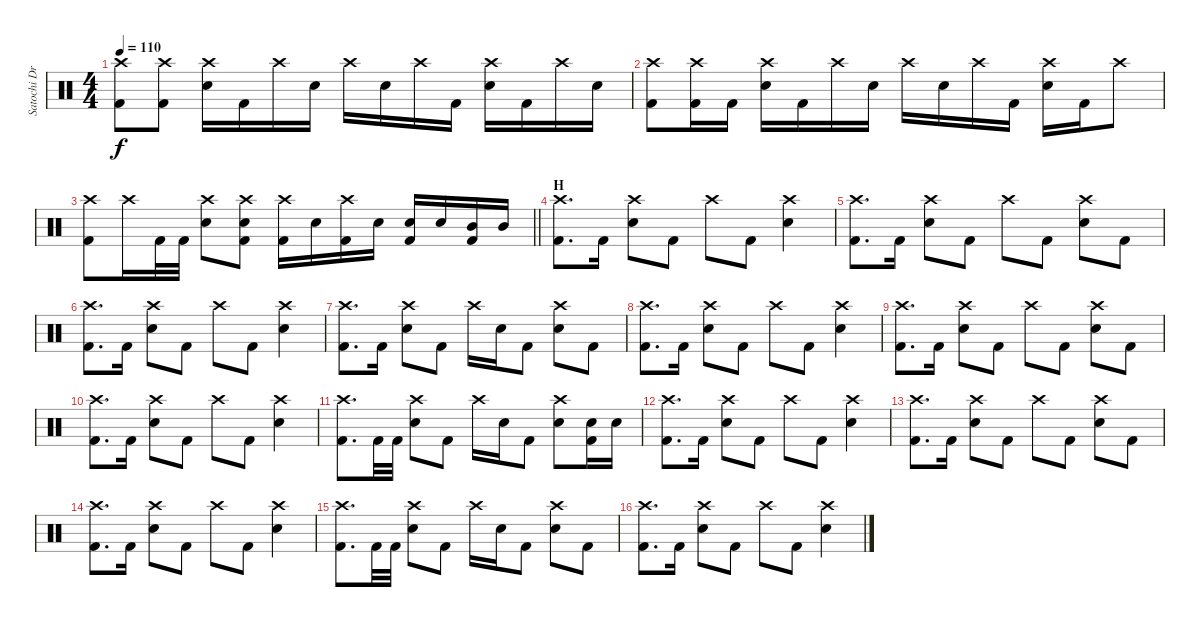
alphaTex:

\track ("Satochi Drums" "Satochi Dr") {instrument percussion}
\staff {score}
\articulation defaults
\ts (4 4)
\tempo 110
\clef neutral
\ks c
("Crash high (hit)" "Kick (hit) 2").8{dy f} ("Crash high (hit)" "Kick (hit) 2").8 ("Crash high (hit)" "Snare (hit) 2").16 "Kick (hit) 2".16 "Crash high (hit)".16 "Snare (hit) 2".16 "Crash high (hit)".16 "Snare (hit) 2".16 "Crash high (hit)".16 "Kick (hit) 2".16 ("Crash high (hit)" "Snare (hit) 2").16 "Kick (hit) 2".16 "Crash high (hit)".16 "Snare (hit) 2".16 |
("Crash high (hit)" "Kick (hit) 2").8 ("Crash high (hit)" "Kick (hit) 2").16 "Kick (hit) 2".16 ("Crash high (hit)" "Snare (hit) 2").16 "Kick (hit) 2".16 "Crash high (hit)".16 "Snare (hit) 2".16 "Crash high (hit)".16 "Snare (hit) 2".16 "Crash high (hit)".16 "Kick (hit) 2".16 ("Crash high (hit)" "Snare (hit) 2").16 "Kick (hit) 2".16 "Crash high (hit)".8 |
\barLineRight lightlight
("Crash high (hit)" "Kick (hit) 2").8 "Crash high (hit)".16 "Kick (hit) 2".32 "Kick (hit) 2".32 ("Crash high (hit)" "Snare (hit) 2").8 ("Crash high (hit)" "Snare (hit) 2" "Kick (hit) 2").8 ("Crash high (hit)" "Kick (hit) 2").16 "Snare (hit) 2".16 ("Crash high (hit)" "Kick (hit) 2").16 "Snare (hit) 2".16 ("Snare (hit) 2" "Kick (hit) 2").16 "Snare (hit) 2".16 ("Mid Tom (hit)" "Kick (hit) 2").16 "Mid Tom (hit)".16 |
\section ("" "H")
("Crash high (hit)" "Kick (hit) 2").8{d} "Kick (hit) 2".16 ("Crash high (hit)" "Snare (hit) 2").8 "Kick (hit) 2".8 "Crash high (hit)".8 "Kick (hit) 2".8 ("Crash high (hit)" "Snare (hit) 2").4 |
("Crash high (hit)" "Kick (hit) 2").8{d} "Kick (hit) 2".16 ("Crash high (hit)" "Snare (hit) 2").8 "Kick (hit) 2".8 "Crash high (hit)".8 "Kick (hit) 2".8 ("Crash high (hit)" "Snare (hit) 2").8 "Kick (hit) 2".8 |
("Crash high (hit)" "Kick (hit) 2").8{d} "Kick (hit) 2".16 ("Crash high (hit)" "Snare (hit) 2").8 "Kick (hit) 2".8 "Crash high (hit)".8 "Kick (hit) 2".8 ("Crash high (hit)" "Snare (hit) 2").4 |
("Crash high (hit)" "Kick (hit) 2").8{d} "Kick (hit) 2".16 ("Crash high (hit)" "Snare (hit) 2").8 "Kick (hit) 2".8 "Crash high (hit)".16 "Snare (hit) 2".16 "Kick (hit) 2".8 ("Crash high (hit)" "Snare (hit) 2").8 "Kick (hit) 2".8 |
("Crash high (hit)" "Kick (hit) 2").8{d} "Kick (hit) 2".16 ("Crash high (hit)" "Snare (hit) 2").8 "Kick (hit) 2".8 "Crash high (hit)".8 "Kick (hit) 2".8 ("Crash high (hit)" "Snare (hit) 2").4 |
("Crash high (hit)" "Kick (hit) 2").8{d} "Kick (hit) 2".16 ("Crash high (hit)" "Snare (hit) 2").8 "Kick (hit) 2".8 "Crash high (hit)".8 "Kick (hit) 2".8 ("Crash high (hit)" "Snare (hit) 2").8 "Kick (hit) 2".8 |
("Crash high (hit)" "Kick (hit) 2").8{d} "Kick (hit) 2".16 ("Crash high (hit)" "Snare (hit) 2").8 "Kick (hit) 2".8 "Crash high (hit)".8 "Kick (hit) 2".8 ("Crash high (hit)" "Snare (hit) 2").4 |
("Crash high (hit)" "Kick (hit) 2").8{d} "Kick (hit) 2".32 "Kick (hit) 2".32 ("Crash high (hit)" "Snare (hit) 2").8 "Kick (hit) 2".8 "Crash high (hit)".16 "Snare (hit) 2".16 "Kick (hit) 2".8 ("Crash high (hit)" "Snare (hit) 2").8 ("Snare (hit) 2" "Kick (hit) 2").16 "Snare (hit) 2".16 |
("Crash high (hit)" "Kick (hit) 2").8{d} "Kick (hit) 2".16 ("Crash high (hit)" "Snare (hit) 2").8 "Kick (hit) 2".8 "Crash high (hit)".8 "Kick (hit) 2".8 ("Crash high (hit)" "Snare (hit) 2").4 |
("Crash high (hit)" "Kick (hit) 2").8{d} "Kick (hit) 2".16 ("Crash high (hit)" "Snare (hit) 2").8 "Kick (hit) 2".8 "Crash high (hit)".8 "Kick (hit) 2".8 ("Crash high (hit)" "Snare (hit) 2").8 "Kick (hit) 2".8 |
("Crash high (hit)" "Kick (hit) 2").8{d} "Kick (hit) 2".16 ("Crash high (hit)" "Snare (hit) 2").8 "Kick (hit) 2".8 "Crash high (hit)".8 "Kick (hit) 2".8 ("Crash high (hit)" "Snare (hit) 2").4 |
("Crash high (hit)" "Kick (hit) 2").8{d} "Kick (hit) 2".32 "Kick (hit) 2".32 ("Crash high (hit)" "Snare (hit) 2").8 "Kick (hit) 2".8 "Crash high (hit)".16 "Snare (hit) 2".16 "Kick (hit) 2".8 ("Crash high (hit)" "Snare (hit) 2").8 "Kick (hit) 2".8 |
("Crash high (hit)" "Kick (hit) 2").8{d} "Kick (hit) 2".16 ("Crash high (hit)" "Snare (hit) 2").8 "Kick (hit) 2".8 "Crash high (hit)".8 "Kick (hit) 2".8 ("Crash high (hit)" "Snare (hit) 2").4
